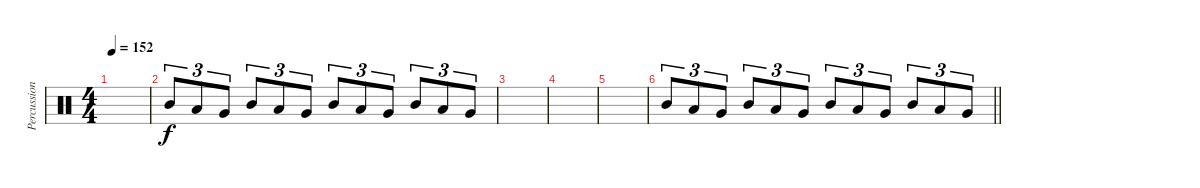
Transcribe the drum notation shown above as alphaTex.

\track ("Percussion" "Percussion") {instrument percussion}
\staff {score}
\articulation defaults
\ts (4 4)
\tempo 152
\clef neutral
\ks c
|
"Mid Tom (hit)".8{tu (3 2)} "Low Tom (hit)".8{tu (3 2)} "Very Low Tom (hit)".8{tu (3 2)} "Mid Tom (hit)".8{tu (3 2)} "Low Tom (hit)".8{tu (3 2)} "Very Low Tom (hit)".8{tu (3 2)} "Mid Tom (hit)".8{tu (3 2)} "Low Tom (hit)".8{tu (3 2)} "Very Low Tom (hit)".8{tu (3 2)} "Mid Tom (hit)".8{tu (3 2)} "Low Tom (hit)".8{tu (3 2)} "Very Low Tom (hit)".8{tu (3 2)} |
|
|
|
\barLineRight lightlight "Mid Tom (hit)".8{tu (3 2)} "Low Tom (hit)".8{tu (3 2)} "Very Low Tom (hit)".8{tu (3 2)} "Mid Tom (hit)".8{tu (3 2)} "Low Tom (hit)".8{tu (3 2)} "Very Low Tom (hit)".8{tu (3 2)} "Mid Tom (hit)".8{tu (3 2)} "Low Tom (hit)".8{tu (3 2)} "Very Low Tom (hit)".8{tu (3 2)} "Mid Tom (hit)".8{tu (3 2)} "Low Tom (hit)".8{tu (3 2)} "Very Low Tom (hit)".8{tu (3 2)}
